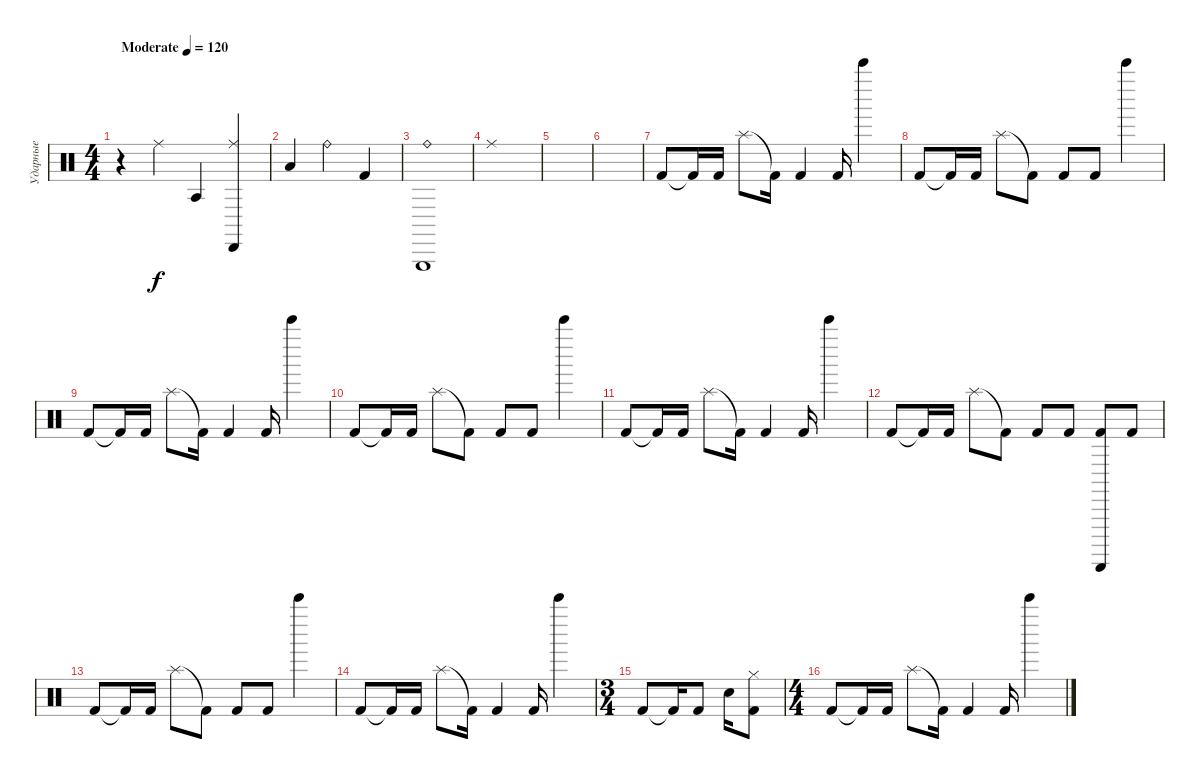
\track ("Ударные" "Ударные") {instrument percussion}
\staff {score}
\articulation defaults
\ts (4 4)
\tempo (120 "Moderate")
\tempo 80
\tempo (120 "Moderate")
\clef neutral
\ks c
r.4{dy f} "Ride (middle)".4 "Agogo tow (hit)".4 ("Cabasa (hit)" "Ride (middle)").4 |
"Low Floor Tom (hit)".4 "Ride (bell)".4 "Kick (hit) 2".4 |
("Ride (bell)" "Triangle (hit)").1 |
"Ride (middle)".1 |
|
|
"Kick (hit) 2".8 "Kick (hit) 2"{t}.16 "Kick (hit) 2".16 "Splash (hit)".8 "Kick (hit) 2"{t}.16 "Kick (hit) 2".4 "Kick (hit) 2".16 "Bell Tree (hit)".4 |
"Kick (hit) 2".8 "Kick (hit) 2"{t}.16 "Kick (hit) 2".16 "Splash (hit)".8 "Kick (hit) 2"{t}.8 "Kick (hit) 2".8 "Kick (hit) 2".8 "Bell Tree (hit)".4 |
"Kick (hit) 2".8 "Kick (hit) 2"{t}.16 "Kick (hit) 2".16 "Splash (hit)".8 "Kick (hit) 2"{t}.16 "Kick (hit) 2".4 "Kick (hit) 2".16 "Bell Tree (hit)".4 |
"Kick (hit) 2".8 "Kick (hit) 2"{t}.16 "Kick (hit) 2".16 "Splash (hit)".8 "Kick (hit) 2"{t}.8 "Kick (hit) 2".8 "Kick (hit) 2".8 "Bell Tree (hit)".4 |
"Kick (hit) 2".8 "Kick (hit) 2"{t}.16 "Kick (hit) 2".16 "Splash (hit)".8 "Kick (hit) 2"{t}.16 "Kick (hit) 2".4 "Kick (hit) 2".16 "Bell Tree (hit)".4 |
"Kick (hit) 2".8 "Kick (hit) 2"{t}.16 "Kick (hit) 2".16 "Splash (hit)".8 "Kick (hit) 2"{t}.8 "Kick (hit) 2".8 "Kick (hit) 2".8 ("Kick (hit) 2" "Guiro (scrap-return)").8 "Kick (hit) 2".8 |
"Kick (hit) 2".8 "Kick (hit) 2"{t}.16 "Kick (hit) 2".16 "Splash (hit)".8 "Kick (hit) 2"{t}.8 "Kick (hit) 2".8 "Kick (hit) 2".8 "Bell Tree (hit)".4 |
"Kick (hit) 2".8 "Kick (hit) 2"{t}.16 "Kick (hit) 2".16 "Splash (hit)".8 "Kick (hit) 2"{t}.16 "Kick (hit) 2".4 "Kick (hit) 2".16 "Bell Tree (hit)".4 |
\ts (3 4)
"Kick (hit) 2".8 "Kick (hit) 2"{t}.16 "Kick (hit) 2".8 "Snare (hit)".16 ("Hi-Hat (closed)" "Kick (hit) 2").8 |
\ts (4 4)
"Kick (hit) 2".8 "Kick (hit) 2"{t}.16 "Kick (hit) 2".16 "Splash (hit)".8 "Kick (hit) 2"{t}.16 "Kick (hit) 2".4 "Kick (hit) 2".16 "Bell Tree (hit)".4
